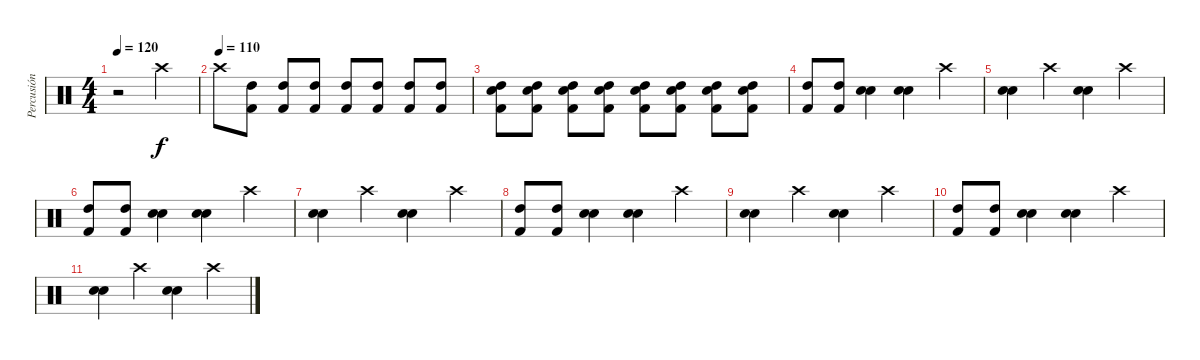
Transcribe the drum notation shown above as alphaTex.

\track ("Percusión" "Percusión") {instrument percussion}
\staff {score}
\articulation defaults
\ts (4 4)
\tempo 120
\clef neutral
\ks c
r.2{dy f} "Crash high (hit)".4 |
\tempo (110)
"Crash high (hit)".8 ("High Tom (hit)" "Kick (hit) 2").8 ("High Tom (hit)" "Kick (hit) 2").8 ("High Tom (hit)" "Kick (hit) 2").8 ("High Tom (hit)" "Kick (hit) 2").8 ("High Tom (hit)" "Kick (hit) 2").8 ("High Tom (hit)" "Kick (hit) 2").8 ("High Tom (hit)" "Kick (hit) 2").8 |
("High Tom (hit)" "Snare (hit) 2" "Kick (hit) 2").8 ("High Tom (hit)" "Snare (hit) 2" "Kick (hit) 2").8 ("High Tom (hit)" "Snare (hit) 2" "Kick (hit) 2").8 ("High Tom (hit)" "Snare (hit) 2" "Kick (hit) 2").8 ("High Tom (hit)" "Snare (hit) 2" "Kick (hit) 2").8 ("High Tom (hit)" "Snare (hit) 2" "Kick (hit) 2").8 ("High Tom (hit)" "Snare (hit) 2" "Kick (hit) 2").8 ("High Tom (hit)" "Snare (hit) 2" "Kick (hit) 2").8 |
("Kick (hit) 2" "High Tom (hit)").8 ("Kick (hit) 2" "High Tom (hit)").8 ("Snare (hit) 2" "Snare (hit) 2").4 ("Snare (hit) 2" "Snare (hit) 2").4 "Crash high (hit)".4 |
("Snare (hit) 2" "Snare (hit) 2").4 "Crash high (hit)".4 ("Snare (hit) 2" "Snare (hit) 2").4 "Crash high (hit)".4 |
("Kick (hit) 2" "High Tom (hit)").8 ("Kick (hit) 2" "High Tom (hit)").8 ("Snare (hit) 2" "Snare (hit) 2").4 ("Snare (hit) 2" "Snare (hit) 2").4 "Crash high (hit)".4 |
("Snare (hit) 2" "Snare (hit) 2").4 "Crash high (hit)".4 ("Snare (hit) 2" "Snare (hit) 2").4 "Crash high (hit)".4 |
("Kick (hit) 2" "High Tom (hit)").8 ("Kick (hit) 2" "High Tom (hit)").8 ("Snare (hit) 2" "Snare (hit) 2").4 ("Snare (hit) 2" "Snare (hit) 2").4 "Crash high (hit)".4 |
("Snare (hit) 2" "Snare (hit) 2").4 "Crash high (hit)".4 ("Snare (hit) 2" "Snare (hit) 2").4 "Crash high (hit)".4 |
("Kick (hit) 2" "High Tom (hit)").8 ("Kick (hit) 2" "High Tom (hit)").8 ("Snare (hit) 2" "Snare (hit) 2").4 ("Snare (hit) 2" "Snare (hit) 2").4 "Crash high (hit)".4 |
("Snare (hit) 2" "Snare (hit) 2").4 "Crash high (hit)".4 ("Snare (hit) 2" "Snare (hit) 2").4 "Crash high (hit)".4
